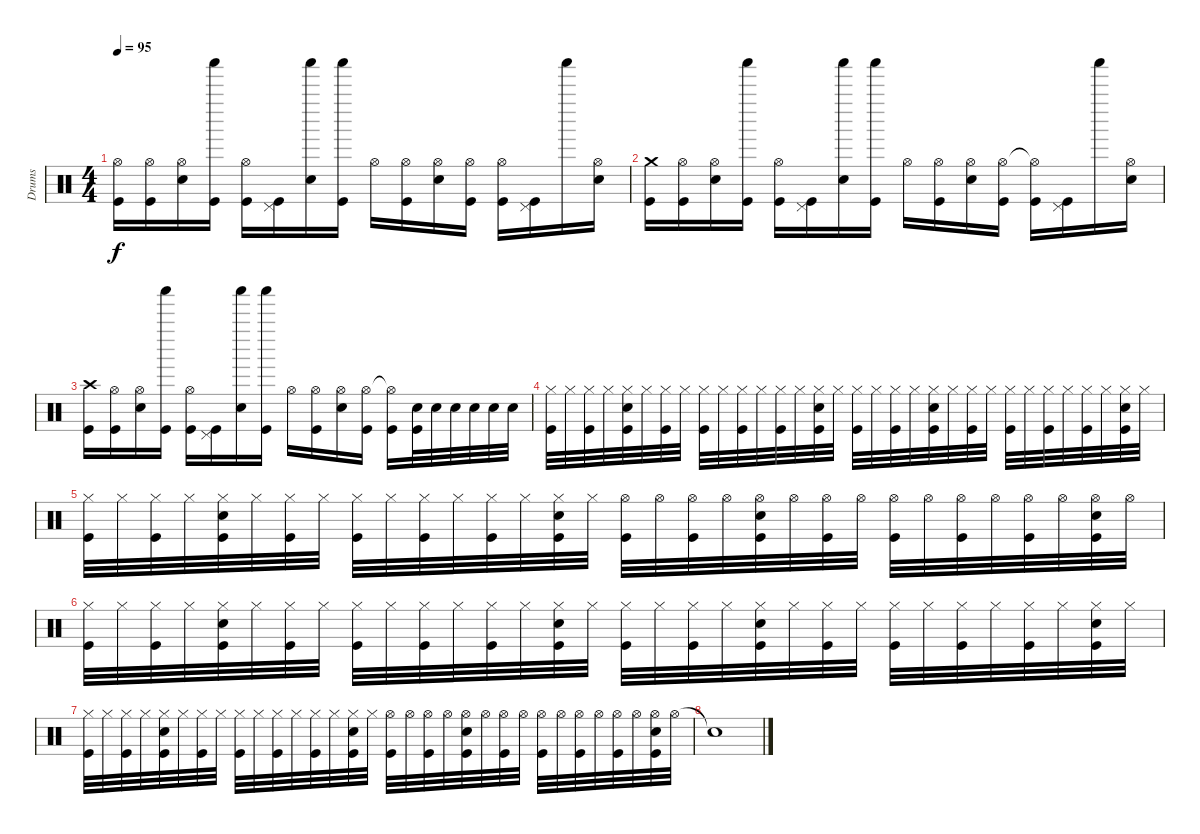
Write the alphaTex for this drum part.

\track ("Drums" "Drums") {instrument percussion}
\staff {score}
\articulation defaults
\ts (4 4)
\tempo 95
\clef neutral
\ks c
("Hi-Hat (open)" "Kick (hit)").16{dy f} ("Hi-Hat (open)" "Kick (hit)").16 ("Hi-Hat (open)" "Electric Snare (hit)").16 ("Shaker (hit)" "Kick (hit)").16 ("Hi-Hat (open)" "Kick (hit)").16 ("Pedal Hi-Hat (hit)" "Kick (hit)").16 ("Shaker (hit)" "Electric Snare (hit)").16 ("Shaker (hit)" "Kick (hit)").16 "Hi-Hat (open)".16 ("Hi-Hat (open)" "Kick (hit)").16 ("Hi-Hat (open)" "Electric Snare (hit)").16 ("Hi-Hat (open)" "Kick (hit)").16 ("Hi-Hat (open)" "Kick (hit)").16 ("Pedal Hi-Hat (hit)" "Kick (hit)").16 "Shaker (hit)".16 ("Hi-Hat (open)" "Electric Snare (hit)").16 |
("Crash medium (hit)" "Kick (hit)").16 ("Hi-Hat (open)" "Kick (hit)").16 ("Hi-Hat (open)" "Electric Snare (hit)").16 ("Shaker (hit)" "Kick (hit)").16 ("Hi-Hat (open)" "Kick (hit)").16 ("Pedal Hi-Hat (hit)" "Kick (hit)").16 ("Shaker (hit)" "Electric Snare (hit)").16 ("Shaker (hit)" "Kick (hit)").16 "Hi-Hat (open)".16 ("Hi-Hat (open)" "Kick (hit)").16 ("Hi-Hat (open)" "Electric Snare (hit)").16 ("Hi-Hat (open)" "Kick (hit)").16 ("Hi-Hat (open)"{t} "Kick (hit)").16 ("Pedal Hi-Hat (hit)" "Kick (hit)").16 "Shaker (hit)".16 ("Hi-Hat (open)" "Electric Snare (hit)").16 |
("Crash high (hit)" "Kick (hit)").16 ("Hi-Hat (open)" "Kick (hit)").16 ("Hi-Hat (open)" "Electric Snare (hit)").16 ("Shaker (hit)" "Kick (hit)").16 ("Hi-Hat (open)" "Kick (hit)").16 ("Pedal Hi-Hat (hit)" "Kick (hit)").16 ("Shaker (hit)" "Electric Snare (hit)").16 ("Shaker (hit)" "Kick (hit)").16 "Hi-Hat (open)".16 ("Hi-Hat (open)" "Kick (hit)").16 ("Hi-Hat (open)" "Electric Snare (hit)").16 ("Hi-Hat (open)" "Kick (hit)").16 ("Hi-Hat (open)"{t} "Kick (hit)").16 ("Electric Snare (hit)" "Kick (hit)").32 "Electric Snare (hit)".32 "Electric Snare (hit)".32 "Electric Snare (hit)".32 "Electric Snare (hit)".32 "Electric Snare (hit)".32 |
("Hi-Hat (closed)" "Kick (hit)").32 "Hi-Hat (closed)".32 ("Hi-Hat (closed)" "Kick (hit)").32 "Hi-Hat (closed)".32 ("Hi-Hat (closed)" "Electric Snare (hit)" "Kick (hit)").32 "Hi-Hat (closed)".32 ("Hi-Hat (closed)" "Kick (hit)").32 "Hi-Hat (closed)".32 ("Hi-Hat (closed)" "Kick (hit)").32 "Hi-Hat (closed)".32 ("Hi-Hat (closed)" "Kick (hit)").32 "Hi-Hat (closed)".32 ("Hi-Hat (closed)" "Kick (hit)").32 "Hi-Hat (closed)".32 ("Hi-Hat (closed)" "Electric Snare (hit)" "Kick (hit)").32 "Hi-Hat (closed)".32 ("Hi-Hat (closed)" "Kick (hit)").32 "Hi-Hat (closed)".32 ("Hi-Hat (closed)" "Kick (hit)").32 "Hi-Hat (closed)".32 ("Hi-Hat (closed)" "Electric Snare (hit)" "Kick (hit)").32 "Hi-Hat (closed)".32 ("Hi-Hat (closed)" "Kick (hit)").32 "Hi-Hat (closed)".32 ("Hi-Hat (closed)" "Kick (hit)").32 "Hi-Hat (closed)".32 ("Hi-Hat (closed)" "Kick (hit)").32 "Hi-Hat (closed)".32 ("Hi-Hat (closed)" "Kick (hit)").32 "Hi-Hat (closed)".32 ("Hi-Hat (closed)" "Electric Snare (hit)" "Kick (hit)").32 "Hi-Hat (closed)".32 |
("Hi-Hat (closed)" "Kick (hit)").32 "Hi-Hat (closed)".32 ("Hi-Hat (closed)" "Kick (hit)").32 "Hi-Hat (closed)".32 ("Hi-Hat (closed)" "Electric Snare (hit)" "Kick (hit)").32 "Hi-Hat (closed)".32 ("Hi-Hat (closed)" "Kick (hit)").32 "Hi-Hat (closed)".32 ("Hi-Hat (closed)" "Kick (hit)").32 "Hi-Hat (closed)".32 ("Hi-Hat (closed)" "Kick (hit)").32 "Hi-Hat (closed)".32 ("Hi-Hat (closed)" "Kick (hit)").32 "Hi-Hat (closed)".32 ("Hi-Hat (closed)" "Electric Snare (hit)" "Kick (hit)").32 "Hi-Hat (closed)".32 ("Hi-Hat (open)" "Kick (hit)").32 "Hi-Hat (open)".32 ("Hi-Hat (open)" "Kick (hit)").32 "Hi-Hat (open)".32 ("Hi-Hat (open)" "Electric Snare (hit)" "Kick (hit)").32 "Hi-Hat (open)".32 ("Hi-Hat (open)" "Kick (hit)").32 "Hi-Hat (open)".32 ("Hi-Hat (open)" "Kick (hit)").32 "Hi-Hat (open)".32 ("Hi-Hat (open)" "Kick (hit)").32 "Hi-Hat (open)".32 ("Hi-Hat (open)" "Kick (hit)").32 "Hi-Hat (open)".32 ("Hi-Hat (open)" "Electric Snare (hit)" "Kick (hit)").32 "Hi-Hat (open)".32 |
("Hi-Hat (closed)" "Kick (hit)").32 "Hi-Hat (closed)".32 ("Hi-Hat (closed)" "Kick (hit)").32 "Hi-Hat (closed)".32 ("Hi-Hat (closed)" "Electric Snare (hit)" "Kick (hit)").32 "Hi-Hat (closed)".32 ("Hi-Hat (closed)" "Kick (hit)").32 "Hi-Hat (closed)".32 ("Hi-Hat (closed)" "Kick (hit)").32 "Hi-Hat (closed)".32 ("Hi-Hat (closed)" "Kick (hit)").32 "Hi-Hat (closed)".32 ("Hi-Hat (closed)" "Kick (hit)").32 "Hi-Hat (closed)".32 ("Hi-Hat (closed)" "Electric Snare (hit)" "Kick (hit)").32 "Hi-Hat (closed)".32 ("Hi-Hat (closed)" "Kick (hit)").32 "Hi-Hat (closed)".32 ("Hi-Hat (closed)" "Kick (hit)").32 "Hi-Hat (closed)".32 ("Hi-Hat (closed)" "Electric Snare (hit)" "Kick (hit)").32 "Hi-Hat (closed)".32 ("Hi-Hat (closed)" "Kick (hit)").32 "Hi-Hat (closed)".32 ("Hi-Hat (closed)" "Kick (hit)").32 "Hi-Hat (closed)".32 ("Hi-Hat (closed)" "Kick (hit)").32 "Hi-Hat (closed)".32 ("Hi-Hat (closed)" "Kick (hit)").32 "Hi-Hat (closed)".32 ("Hi-Hat (closed)" "Electric Snare (hit)" "Kick (hit)").32 "Hi-Hat (closed)".32 |
("Hi-Hat (closed)" "Kick (hit)").32 "Hi-Hat (closed)".32 ("Hi-Hat (closed)" "Kick (hit)").32 "Hi-Hat (closed)".32 ("Hi-Hat (closed)" "Electric Snare (hit)" "Kick (hit)").32 "Hi-Hat (closed)".32 ("Hi-Hat (closed)" "Kick (hit)").32 "Hi-Hat (closed)".32 ("Hi-Hat (closed)" "Kick (hit)").32 "Hi-Hat (closed)".32 ("Hi-Hat (closed)" "Kick (hit)").32 "Hi-Hat (closed)".32 ("Hi-Hat (closed)" "Kick (hit)").32 "Hi-Hat (closed)".32 ("Hi-Hat (closed)" "Electric Snare (hit)" "Kick (hit)").32 "Hi-Hat (closed)".32 ("Hi-Hat (open)" "Kick (hit)").32 "Hi-Hat (open)".32 ("Hi-Hat (open)" "Kick (hit)").32 "Hi-Hat (open)".32 ("Hi-Hat (open)" "Electric Snare (hit)" "Kick (hit)").32 "Hi-Hat (open)".32 ("Hi-Hat (open)" "Kick (hit)").32 "Hi-Hat (open)".32 ("Hi-Hat (open)" "Kick (hit)").32 "Hi-Hat (open)".32 ("Hi-Hat (open)" "Kick (hit)").32 "Hi-Hat (open)".32 ("Hi-Hat (open)" "Kick (hit)").32 "Hi-Hat (open)".32 ("Hi-Hat (open)" "Electric Snare (hit)" "Kick (hit)").32 "Hi-Hat (open)".32 |
"Snare (hit)"{t}.1
